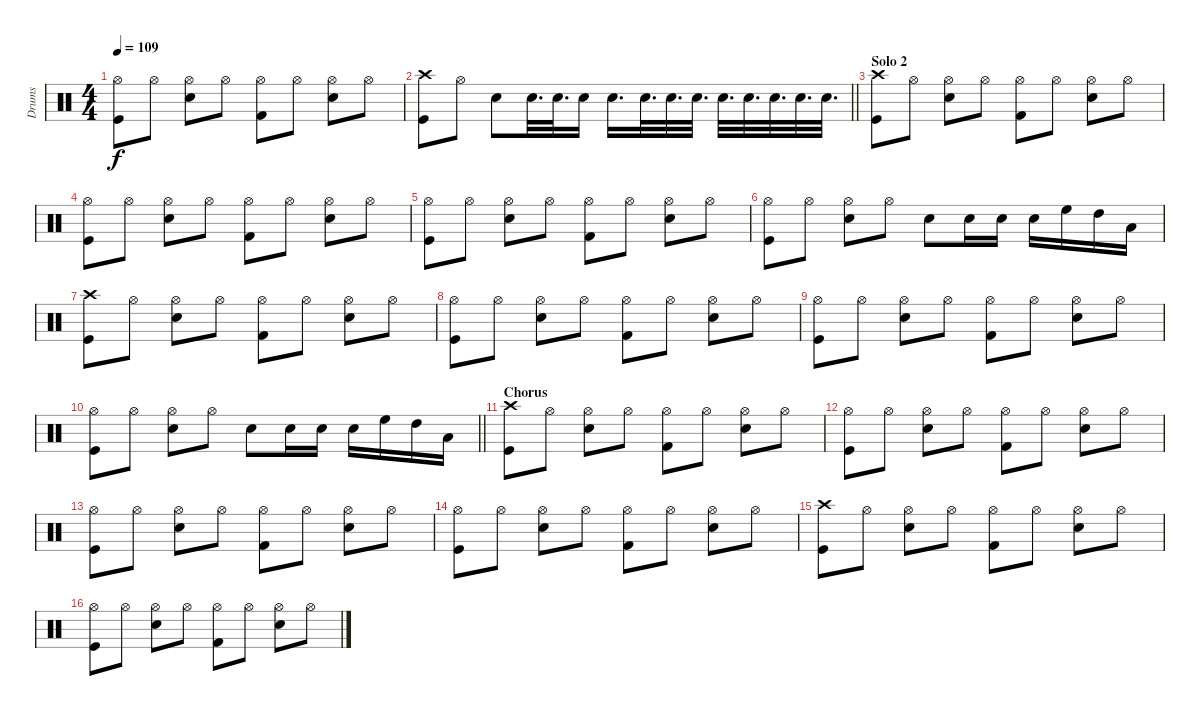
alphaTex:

\track ("Drums" "Drums") {instrument percussion}
\staff {score}
\articulation defaults
\ts (4 4)
\tempo 109
\clef neutral
\ks c
("Hi-Hat (open)" "Kick (hit)").8{dy f} "Hi-Hat (open)".8 ("Hi-Hat (open)" "Snare (hit) 2").8 "Hi-Hat (open)".8 ("Hi-Hat (open)" "Kick (hit) 2").8 "Hi-Hat (open)".8 ("Hi-Hat (open)" "Snare (hit) 2").8 "Hi-Hat (open)".8 |
\barLineRight lightlight
("Crash high (hit)" "Kick (hit)").8 "Hi-Hat (open)".8 "Snare (hit) 2".8 "Snare (hit) 2".32{d} "Snare (hit) 2".32{d} "Snare (hit) 2".16 "Snare (hit) 2".16{d} "Snare (hit) 2".32{d} "Snare (hit) 2".32{d} "Snare (hit) 2".32{d} "Snare (hit) 2".32{d} "Snare (hit) 2".32{d} "Snare (hit) 2".32{d} "Snare (hit) 2".32{d} "Snare (hit) 2".32{d} |
\section ("" "Solo 2")
("Crash high (hit)" "Kick (hit)").8 "Hi-Hat (open)".8 ("Hi-Hat (open)" "Snare (hit) 2").8 "Hi-Hat (open)".8 ("Hi-Hat (open)" "Kick (hit) 2").8 "Hi-Hat (open)".8 ("Hi-Hat (open)" "Snare (hit) 2").8 "Hi-Hat (open)".8 |
("Hi-Hat (open)" "Kick (hit)").8 "Hi-Hat (open)".8 ("Hi-Hat (open)" "Snare (hit) 2").8 "Hi-Hat (open)".8 ("Hi-Hat (open)" "Kick (hit) 2").8 "Hi-Hat (open)".8 ("Hi-Hat (open)" "Snare (hit) 2").8 "Hi-Hat (open)".8 |
("Hi-Hat (open)" "Kick (hit)").8 "Hi-Hat (open)".8 ("Hi-Hat (open)" "Snare (hit) 2").8 "Hi-Hat (open)".8 ("Hi-Hat (open)" "Kick (hit) 2").8 "Hi-Hat (open)".8 ("Hi-Hat (open)" "Snare (hit) 2").8 "Hi-Hat (open)".8 |
("Kick (hit)" "Hi-Hat (open)").8 "Hi-Hat (open)".8 ("Snare (hit) 2" "Hi-Hat (open)").8 "Hi-Hat (open)".8 "Snare (hit) 2".8 "Snare (hit) 2".16 "Snare (hit) 2".16 "Snare (hit) 2".16 "High Floor Tom (hit)".16 "High Tom (hit)".16 "Low Floor Tom (hit)".16 |
("Crash high (hit)" "Kick (hit)").8 "Hi-Hat (open)".8 ("Hi-Hat (open)" "Snare (hit) 2").8 "Hi-Hat (open)".8 ("Hi-Hat (open)" "Kick (hit) 2").8 "Hi-Hat (open)".8 ("Hi-Hat (open)" "Snare (hit) 2").8 "Hi-Hat (open)".8 |
("Hi-Hat (open)" "Kick (hit)").8 "Hi-Hat (open)".8 ("Hi-Hat (open)" "Snare (hit) 2").8 "Hi-Hat (open)".8 ("Hi-Hat (open)" "Kick (hit) 2").8 "Hi-Hat (open)".8 ("Hi-Hat (open)" "Snare (hit) 2").8 "Hi-Hat (open)".8 |
("Hi-Hat (open)" "Kick (hit)").8 "Hi-Hat (open)".8 ("Hi-Hat (open)" "Snare (hit) 2").8 "Hi-Hat (open)".8 ("Hi-Hat (open)" "Kick (hit) 2").8 "Hi-Hat (open)".8 ("Hi-Hat (open)" "Snare (hit) 2").8 "Hi-Hat (open)".8 |
\barLineRight lightlight
("Kick (hit)" "Hi-Hat (open)").8 "Hi-Hat (open)".8 ("Snare (hit) 2" "Hi-Hat (open)").8 "Hi-Hat (open)".8 "Snare (hit) 2".8 "Snare (hit) 2".16 "Snare (hit) 2".16 "Snare (hit) 2".16 "High Floor Tom (hit)".16 "High Tom (hit)".16 "Low Floor Tom (hit)".16 |
\section ("" "Chorus")
("Crash high (hit)" "Kick (hit)").8 "Hi-Hat (open)".8 ("Hi-Hat (open)" "Snare (hit) 2").8 "Hi-Hat (open)".8 ("Hi-Hat (open)" "Kick (hit) 2").8 "Hi-Hat (open)".8 ("Hi-Hat (open)" "Snare (hit) 2").8 "Hi-Hat (open)".8 |
("Hi-Hat (open)" "Kick (hit)").8 "Hi-Hat (open)".8 ("Hi-Hat (open)" "Snare (hit) 2").8 "Hi-Hat (open)".8 ("Hi-Hat (open)" "Kick (hit) 2").8 "Hi-Hat (open)".8 ("Hi-Hat (open)" "Snare (hit) 2").8 "Hi-Hat (open)".8 |
("Hi-Hat (open)" "Kick (hit)").8 "Hi-Hat (open)".8 ("Hi-Hat (open)" "Snare (hit) 2").8 "Hi-Hat (open)".8 ("Hi-Hat (open)" "Kick (hit) 2").8 "Hi-Hat (open)".8 ("Hi-Hat (open)" "Snare (hit) 2").8 "Hi-Hat (open)".8 |
("Hi-Hat (open)" "Kick (hit)").8 "Hi-Hat (open)".8 ("Hi-Hat (open)" "Snare (hit) 2").8 "Hi-Hat (open)".8 ("Hi-Hat (open)" "Kick (hit) 2").8 "Hi-Hat (open)".8 ("Hi-Hat (open)" "Snare (hit) 2").8 "Hi-Hat (open)".8 |
("Crash high (hit)" "Kick (hit)").8 "Hi-Hat (open)".8 ("Hi-Hat (open)" "Snare (hit) 2").8 "Hi-Hat (open)".8 ("Hi-Hat (open)" "Kick (hit) 2").8 "Hi-Hat (open)".8 ("Hi-Hat (open)" "Snare (hit) 2").8 "Hi-Hat (open)".8 |
("Hi-Hat (open)" "Kick (hit)").8 "Hi-Hat (open)".8 ("Hi-Hat (open)" "Snare (hit) 2").8 "Hi-Hat (open)".8 ("Hi-Hat (open)" "Kick (hit) 2").8 "Hi-Hat (open)".8 ("Hi-Hat (open)" "Snare (hit) 2").8 "Hi-Hat (open)".8
